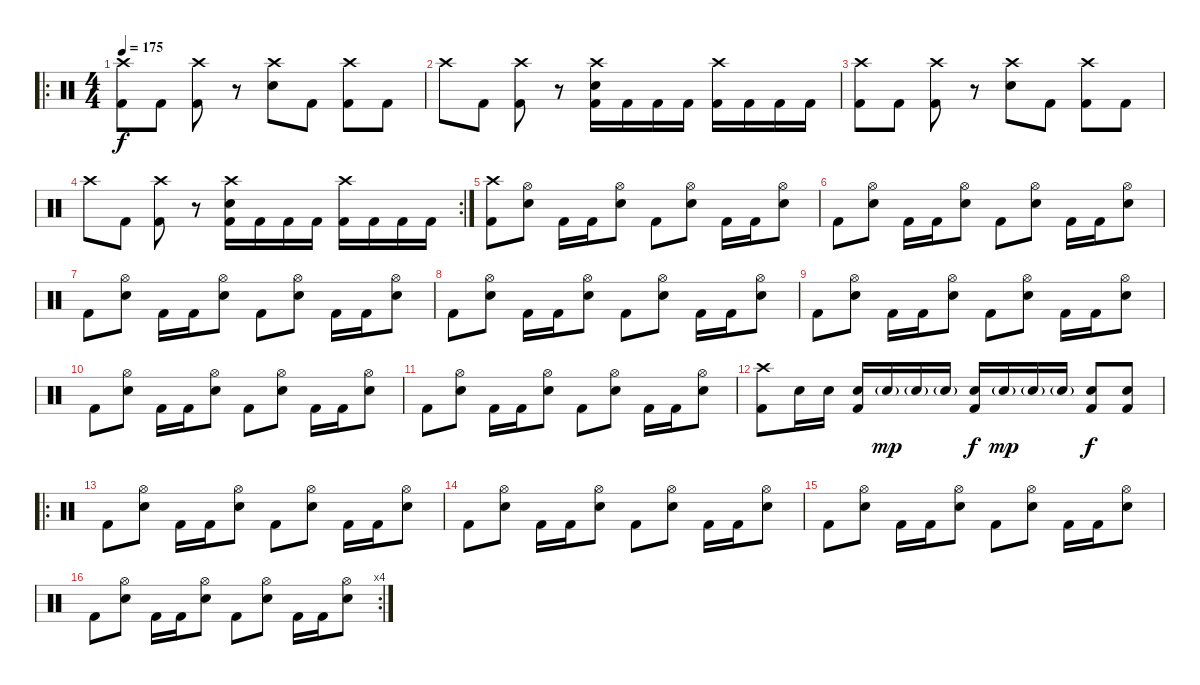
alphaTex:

\track "" {instrument percussion}
\staff {score}
\articulation defaults
\ro
\ts (4 4)
\tempo 175
\clef neutral
\ks c
("Crash high (hit)" "Kick (hit) 2").8{dy f} "Kick (hit) 2".8 ("Crash high (hit)" "Kick (hit) 2").8 r.8 ("Crash high (hit)" "Electric Snare (hit)").8 "Kick (hit) 2".8 ("Crash high (hit)" "Kick (hit) 2").8 "Kick (hit) 2".8 |
"Crash high (hit)".8 "Kick (hit) 2".8 ("Crash high (hit)" "Kick (hit) 2").8 r.8 ("Crash high (hit)" "Electric Snare (hit)" "Kick (hit) 2").16 "Kick (hit) 2".16 "Kick (hit) 2".16 "Kick (hit) 2".16 ("Crash high (hit)" "Kick (hit) 2").16 "Kick (hit) 2".16 "Kick (hit) 2".16 "Kick (hit) 2".16 |
("Crash high (hit)" "Kick (hit) 2").8 "Kick (hit) 2".8 ("Crash high (hit)" "Kick (hit) 2").8 r.8 ("Crash high (hit)" "Electric Snare (hit)").8 "Kick (hit) 2".8 ("Crash high (hit)" "Kick (hit) 2").8 "Kick (hit) 2".8 |
\rc 2 "Crash high (hit)".8 "Kick (hit) 2".8
("Crash high (hit)" "Kick (hit) 2").8 r.8 ("Crash high (hit)" "Electric Snare (hit)" "Kick (hit) 2").16 "Kick (hit) 2".16 "Kick (hit) 2".16 "Kick (hit) 2".16 ("Crash high (hit)" "Kick (hit) 2").16 "Kick (hit) 2".16 "Kick (hit) 2".16 "Kick (hit) 2".16 |
("Crash high (hit)" "Kick (hit) 2").8 ("Hi-Hat (open)" "Electric Snare (hit)").8 "Kick (hit) 2".16 "Kick (hit) 2".16 ("Hi-Hat (open)" "Electric Snare (hit)").8 "Kick (hit) 2".8 ("Hi-Hat (open)" "Electric Snare (hit)").8 "Kick (hit) 2".16 "Kick (hit) 2".16 ("Hi-Hat (open)" "Electric Snare (hit)").8 |
"Kick (hit) 2".8 ("Hi-Hat (open)" "Electric Snare (hit)").8 "Kick (hit) 2".16 "Kick (hit) 2".16 ("Hi-Hat (open)" "Electric Snare (hit)").8 "Kick (hit) 2".8 ("Hi-Hat (open)" "Electric Snare (hit)").8 "Kick (hit) 2".16 "Kick (hit) 2".16 ("Hi-Hat (open)" "Electric Snare (hit)").8 |
"Kick (hit) 2".8 ("Hi-Hat (open)" "Electric Snare (hit)").8 "Kick (hit) 2".16 "Kick (hit) 2".16 ("Hi-Hat (open)" "Electric Snare (hit)").8 "Kick (hit) 2".8 ("Hi-Hat (open)" "Electric Snare (hit)").8 "Kick (hit) 2".16 "Kick (hit) 2".16 ("Hi-Hat (open)" "Electric Snare (hit)").8 |
"Kick (hit) 2".8 ("Hi-Hat (open)" "Electric Snare (hit)").8 "Kick (hit) 2".16 "Kick (hit) 2".16 ("Hi-Hat (open)" "Electric Snare (hit)").8 "Kick (hit) 2".8 ("Hi-Hat (open)" "Electric Snare (hit)").8 "Kick (hit) 2".16 "Kick (hit) 2".16 ("Hi-Hat (open)" "Electric Snare (hit)").8 |
"Kick (hit) 2".8 ("Hi-Hat (open)" "Electric Snare (hit)").8 "Kick (hit) 2".16 "Kick (hit) 2".16 ("Hi-Hat (open)" "Electric Snare (hit)").8 "Kick (hit) 2".8 ("Hi-Hat (open)" "Electric Snare (hit)").8 "Kick (hit) 2".16 "Kick (hit) 2".16 ("Hi-Hat (open)" "Electric Snare (hit)").8 |
"Kick (hit) 2".8 ("Hi-Hat (open)" "Electric Snare (hit)").8 "Kick (hit) 2".16 "Kick (hit) 2".16 ("Hi-Hat (open)" "Electric Snare (hit)").8 "Kick (hit) 2".8 ("Hi-Hat (open)" "Electric Snare (hit)").8 "Kick (hit) 2".16 "Kick (hit) 2".16 ("Hi-Hat (open)" "Electric Snare (hit)").8 |
"Kick (hit) 2".8 ("Hi-Hat (open)" "Electric Snare (hit)").8 "Kick (hit) 2".16 "Kick (hit) 2".16 ("Hi-Hat (open)" "Electric Snare (hit)").8 "Kick (hit) 2".8 ("Hi-Hat (open)" "Electric Snare (hit)").8 "Kick (hit) 2".16 "Kick (hit) 2".16 ("Hi-Hat (open)" "Electric Snare (hit)").8 |
("Crash high (hit)" "Kick (hit) 2").8 "Electric Snare (hit)".16 "Electric Snare (hit)".16 ("Electric Snare (hit)" "Kick (hit) 2").16 "Electric Snare (hit)"{g}.16{dy mp} "Electric Snare (hit)"{g}.16 "Electric Snare (hit)"{g}.16 ("Electric Snare (hit)" "Kick (hit) 2").16{dy f} "Electric Snare (hit)"{g}.16{dy mp} "Electric Snare (hit)"{g}.16 "Electric Snare (hit)"{g}.16 ("Electric Snare (hit)" "Kick (hit) 2").8{dy f} ("Electric Snare (hit)" "Kick (hit) 2").8 |
\ro "Kick (hit) 2".8
("Hi-Hat (open)" "Electric Snare (hit)").8 "Kick (hit) 2".16 "Kick (hit) 2".16 ("Hi-Hat (open)" "Electric Snare (hit)").8 "Kick (hit) 2".8 ("Hi-Hat (open)" "Electric Snare (hit)").8 "Kick (hit) 2".16 "Kick (hit) 2".16 ("Hi-Hat (open)" "Electric Snare (hit)").8 |
"Kick (hit) 2".8 ("Hi-Hat (open)" "Electric Snare (hit)").8 "Kick (hit) 2".16 "Kick (hit) 2".16 ("Hi-Hat (open)" "Electric Snare (hit)").8 "Kick (hit) 2".8 ("Hi-Hat (open)" "Electric Snare (hit)").8 "Kick (hit) 2".16 "Kick (hit) 2".16 ("Hi-Hat (open)" "Electric Snare (hit)").8 |
"Kick (hit) 2".8 ("Hi-Hat (open)" "Electric Snare (hit)").8 "Kick (hit) 2".16 "Kick (hit) 2".16 ("Hi-Hat (open)" "Electric Snare (hit)").8 "Kick (hit) 2".8 ("Hi-Hat (open)" "Electric Snare (hit)").8 "Kick (hit) 2".16 "Kick (hit) 2".16 ("Hi-Hat (open)" "Electric Snare (hit)").8 |
\rc 4 "Kick (hit) 2".8
("Hi-Hat (open)" "Electric Snare (hit)").8 "Kick (hit) 2".16 "Kick (hit) 2".16 ("Hi-Hat (open)" "Electric Snare (hit)").8 "Kick (hit) 2".8 ("Hi-Hat (open)" "Electric Snare (hit)").8 "Kick (hit) 2".16 "Kick (hit) 2".16 ("Hi-Hat (open)" "Electric Snare (hit)").8
